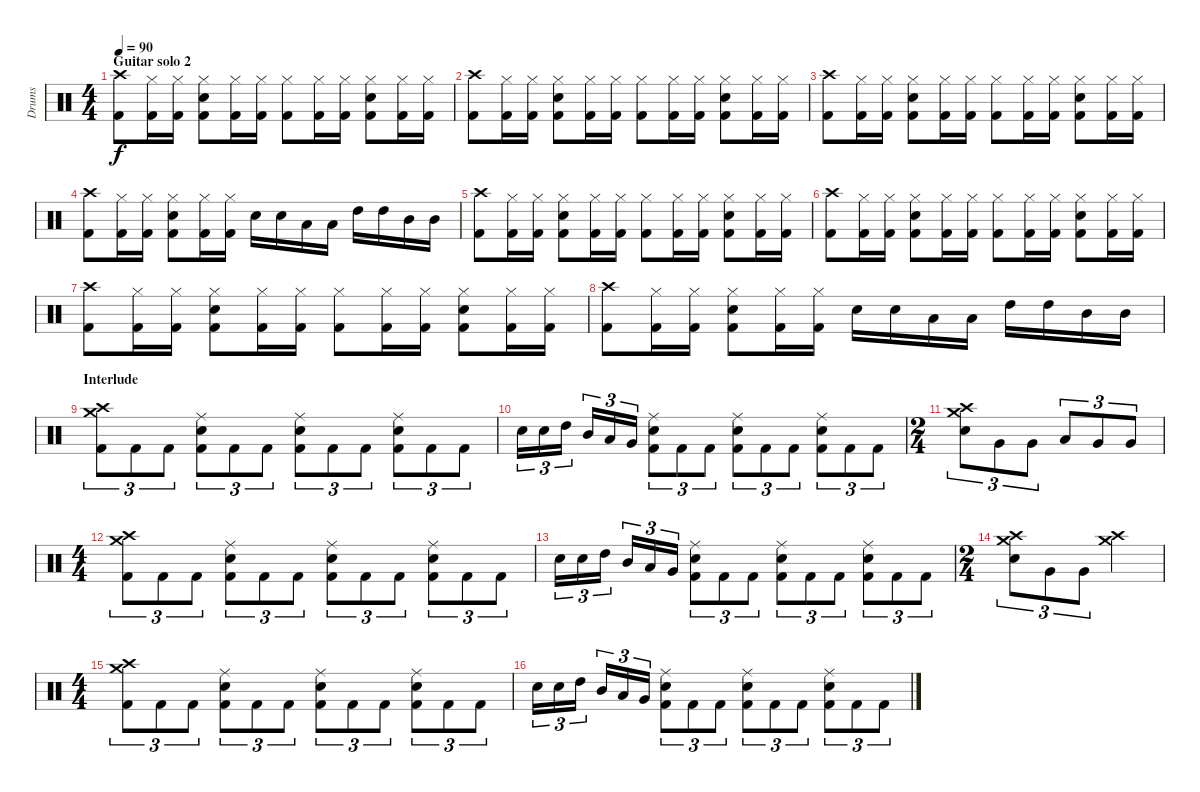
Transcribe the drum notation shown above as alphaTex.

\track ("Drums" "Drums") {instrument percussion}
\staff {score}
\articulation defaults
\ts (4 4)
\section ("" "Guitar solo 2")
\tempo 90
\clef neutral
\ks c
("Crash high (hit)" "Kick (hit) 2").8{dy f} ("Hi-Hat (closed)" "Kick (hit) 2").16 ("Hi-Hat (closed)" "Kick (hit) 2").16 ("Hi-Hat (closed)" "Kick (hit) 2" "Electric Snare (hit)").8 ("Hi-Hat (closed)" "Kick (hit) 2").16 ("Hi-Hat (closed)" "Kick (hit) 2").16 ("Hi-Hat (closed)" "Kick (hit) 2").8 ("Hi-Hat (closed)" "Kick (hit) 2").16 ("Hi-Hat (closed)" "Kick (hit) 2").16 ("Hi-Hat (closed)" "Kick (hit) 2" "Electric Snare (hit)").8 ("Hi-Hat (closed)" "Kick (hit) 2").16 ("Hi-Hat (closed)" "Kick (hit) 2").16 |
("Crash high (hit)" "Kick (hit) 2").8 ("Hi-Hat (closed)" "Kick (hit) 2").16 ("Hi-Hat (closed)" "Kick (hit) 2").16 ("Hi-Hat (closed)" "Kick (hit) 2" "Electric Snare (hit)").8 ("Hi-Hat (closed)" "Kick (hit) 2").16 ("Hi-Hat (closed)" "Kick (hit) 2").16 ("Hi-Hat (closed)" "Kick (hit) 2").8 ("Hi-Hat (closed)" "Kick (hit) 2").16 ("Hi-Hat (closed)" "Kick (hit) 2").16 ("Hi-Hat (closed)" "Kick (hit) 2" "Electric Snare (hit)").8 ("Hi-Hat (closed)" "Kick (hit) 2").16 ("Hi-Hat (closed)" "Kick (hit) 2").16 |
("Crash high (hit)" "Kick (hit) 2").8 ("Hi-Hat (closed)" "Kick (hit) 2").16 ("Hi-Hat (closed)" "Kick (hit) 2").16 ("Hi-Hat (closed)" "Kick (hit) 2" "Electric Snare (hit)").8 ("Hi-Hat (closed)" "Kick (hit) 2").16 ("Hi-Hat (closed)" "Kick (hit) 2").16 ("Hi-Hat (closed)" "Kick (hit) 2").8 ("Hi-Hat (closed)" "Kick (hit) 2").16 ("Hi-Hat (closed)" "Kick (hit) 2").16 ("Hi-Hat (closed)" "Kick (hit) 2" "Electric Snare (hit)").8 ("Hi-Hat (closed)" "Kick (hit) 2").16 ("Hi-Hat (closed)" "Kick (hit) 2").16 |
("Crash high (hit)" "Kick (hit) 2").8 ("Hi-Hat (closed)" "Kick (hit) 2").16 ("Hi-Hat (closed)" "Kick (hit) 2").16 ("Hi-Hat (closed)" "Kick (hit) 2" "Electric Snare (hit)").8 ("Hi-Hat (closed)" "Kick (hit) 2").16 ("Hi-Hat (closed)" "Kick (hit) 2").16 "Electric Snare (hit)".16 "Electric Snare (hit)".16 "Low Tom (hit)".16 "Low Tom (hit)".16 "High Tom (hit)".16 "High Tom (hit)".16 "Mid Tom (hit)".16 "Mid Tom (hit)".16 |
("Crash high (hit)" "Kick (hit) 2").8 ("Hi-Hat (closed)" "Kick (hit) 2").16 ("Hi-Hat (closed)" "Kick (hit) 2").16 ("Hi-Hat (closed)" "Kick (hit) 2" "Electric Snare (hit)").8 ("Hi-Hat (closed)" "Kick (hit) 2").16 ("Hi-Hat (closed)" "Kick (hit) 2").16 ("Hi-Hat (closed)" "Kick (hit) 2").8 ("Hi-Hat (closed)" "Kick (hit) 2").16 ("Hi-Hat (closed)" "Kick (hit) 2").16 ("Hi-Hat (closed)" "Kick (hit) 2" "Electric Snare (hit)").8 ("Hi-Hat (closed)" "Kick (hit) 2").16 ("Hi-Hat (closed)" "Kick (hit) 2").16 |
("Crash high (hit)" "Kick (hit) 2").8 ("Hi-Hat (closed)" "Kick (hit) 2").16 ("Hi-Hat (closed)" "Kick (hit) 2").16 ("Hi-Hat (closed)" "Kick (hit) 2" "Electric Snare (hit)").8 ("Hi-Hat (closed)" "Kick (hit) 2").16 ("Hi-Hat (closed)" "Kick (hit) 2").16 ("Hi-Hat (closed)" "Kick (hit) 2").8 ("Hi-Hat (closed)" "Kick (hit) 2").16 ("Hi-Hat (closed)" "Kick (hit) 2").16 ("Hi-Hat (closed)" "Kick (hit) 2" "Electric Snare (hit)").8 ("Hi-Hat (closed)" "Kick (hit) 2").16 ("Hi-Hat (closed)" "Kick (hit) 2").16 |
("Crash high (hit)" "Kick (hit) 2").8 ("Hi-Hat (closed)" "Kick (hit) 2").16 ("Hi-Hat (closed)" "Kick (hit) 2").16 ("Hi-Hat (closed)" "Kick (hit) 2" "Electric Snare (hit)").8 ("Hi-Hat (closed)" "Kick (hit) 2").16 ("Hi-Hat (closed)" "Kick (hit) 2").16 ("Hi-Hat (closed)" "Kick (hit) 2").8 ("Hi-Hat (closed)" "Kick (hit) 2").16 ("Hi-Hat (closed)" "Kick (hit) 2").16 ("Hi-Hat (closed)" "Kick (hit) 2" "Electric Snare (hit)").8 ("Hi-Hat (closed)" "Kick (hit) 2").16 ("Hi-Hat (closed)" "Kick (hit) 2").16 |
("Crash high (hit)" "Kick (hit) 2").8 ("Hi-Hat (closed)" "Kick (hit) 2").16 ("Hi-Hat (closed)" "Kick (hit) 2").16 ("Hi-Hat (closed)" "Kick (hit) 2" "Electric Snare (hit)").8 ("Hi-Hat (closed)" "Kick (hit) 2").16 ("Hi-Hat (closed)" "Kick (hit) 2").16 "Electric Snare (hit)".16 "Electric Snare (hit)".16 "Low Tom (hit)".16 "Low Tom (hit)".16 "High Tom (hit)".16 "High Tom (hit)".16 "Mid Tom (hit)".16 "Mid Tom (hit)".16 |
\section ("" "Interlude")
("Crash medium (hit)" "Crash high (hit)" "Kick (hit) 2").8{tu (3 2)} "Kick (hit) 2".8{tu (3 2)} "Kick (hit) 2".8{tu (3 2)} ("Electric Snare (hit)" "Ride (middle)" "Kick (hit) 2").8{tu (3 2)} "Kick (hit) 2".8{tu (3 2)} "Kick (hit) 2".8{tu (3 2)} ("Electric Snare (hit)" "Ride (middle)" "Kick (hit) 2").8{tu (3 2)} "Kick (hit) 2".8{tu (3 2)} "Kick (hit) 2".8{tu (3 2)} ("Electric Snare (hit)" "Ride (middle)" "Kick (hit) 2").8{tu (3 2)} "Kick (hit) 2".8{tu (3 2)} "Kick (hit) 2".8{tu (3 2)} |
"Electric Snare (hit)".16{tu (3 2)} "Electric Snare (hit)".16{tu (3 2)} "High Tom (hit)".16{tu (3 2)} "Mid Tom (hit)".16{tu (3 2)} "Low Tom (hit)".16{tu (3 2)} "Very Low Tom (hit)".16{tu (3 2)} ("Electric Snare (hit)" "Ride (middle)" "Kick (hit) 2").8{tu (3 2)} "Kick (hit) 2".8{tu (3 2)} "Kick (hit) 2".8{tu (3 2)} ("Electric Snare (hit)" "Ride (middle)" "Kick (hit) 2").8{tu (3 2)} "Kick (hit) 2".8{tu (3 2)} "Kick (hit) 2".8{tu (3 2)} ("Electric Snare (hit)" "Ride (middle)" "Kick (hit) 2").8{tu (3 2)} "Kick (hit) 2".8{tu (3 2)} "Kick (hit) 2".8{tu (3 2)} |
\ts (2 4)
("Crash medium (hit)" "Crash high (hit)" "Electric Snare (hit)").8{tu (3 2)} "Very Low Tom (hit)".8{tu (3 2)} "Very Low Tom (hit)".8{tu (3 2)} "Low Tom (hit)".8{tu (3 2)} "Very Low Tom (hit)".8{tu (3 2)} "Very Low Tom (hit)".8{tu (3 2)} |
\ts (4 4)
("Crash medium (hit)" "Crash high (hit)" "Kick (hit) 2").8{tu (3 2)} "Kick (hit) 2".8{tu (3 2)} "Kick (hit) 2".8{tu (3 2)} ("Electric Snare (hit)" "Ride (middle)" "Kick (hit) 2").8{tu (3 2)} "Kick (hit) 2".8{tu (3 2)} "Kick (hit) 2".8{tu (3 2)} ("Electric Snare (hit)" "Ride (middle)" "Kick (hit) 2").8{tu (3 2)} "Kick (hit) 2".8{tu (3 2)} "Kick (hit) 2".8{tu (3 2)} ("Electric Snare (hit)" "Ride (middle)" "Kick (hit) 2").8{tu (3 2)} "Kick (hit) 2".8{tu (3 2)} "Kick (hit) 2".8{tu (3 2)} |
"Electric Snare (hit)".16{tu (3 2)} "Electric Snare (hit)".16{tu (3 2)} "High Tom (hit)".16{tu (3 2)} "Mid Tom (hit)".16{tu (3 2)} "Low Tom (hit)".16{tu (3 2)} "Very Low Tom (hit)".16{tu (3 2)} ("Electric Snare (hit)" "Ride (middle)" "Kick (hit) 2").8{tu (3 2)} "Kick (hit) 2".8{tu (3 2)} "Kick (hit) 2".8{tu (3 2)} ("Electric Snare (hit)" "Ride (middle)" "Kick (hit) 2").8{tu (3 2)} "Kick (hit) 2".8{tu (3 2)} "Kick (hit) 2".8{tu (3 2)} ("Electric Snare (hit)" "Ride (middle)" "Kick (hit) 2").8{tu (3 2)} "Kick (hit) 2".8{tu (3 2)} "Kick (hit) 2".8{tu (3 2)} |
\ts (2 4)
("Crash high (hit)" "Crash medium (hit)" "Electric Snare (hit)").8{tu (3 2)} "Very Low Tom (hit)".8{tu (3 2)} "Very Low Tom (hit)".8{tu (3 2)} ("Crash high (hit)" "Crash medium (hit)").4 |
\ts (4 4)
("Crash medium (hit)" "Crash high (hit)" "Kick (hit) 2").8{tu (3 2)} "Kick (hit) 2".8{tu (3 2)} "Kick (hit) 2".8{tu (3 2)} ("Electric Snare (hit)" "Ride (middle)" "Kick (hit) 2").8{tu (3 2)} "Kick (hit) 2".8{tu (3 2)} "Kick (hit) 2".8{tu (3 2)} ("Electric Snare (hit)" "Ride (middle)" "Kick (hit) 2").8{tu (3 2)} "Kick (hit) 2".8{tu (3 2)} "Kick (hit) 2".8{tu (3 2)} ("Electric Snare (hit)" "Ride (middle)" "Kick (hit) 2").8{tu (3 2)} "Kick (hit) 2".8{tu (3 2)} "Kick (hit) 2".8{tu (3 2)} |
"Electric Snare (hit)".16{tu (3 2)} "Electric Snare (hit)".16{tu (3 2)} "High Tom (hit)".16{tu (3 2)} "Mid Tom (hit)".16{tu (3 2)} "Low Tom (hit)".16{tu (3 2)} "Very Low Tom (hit)".16{tu (3 2)} ("Electric Snare (hit)" "Ride (middle)" "Kick (hit) 2").8{tu (3 2)} "Kick (hit) 2".8{tu (3 2)} "Kick (hit) 2".8{tu (3 2)} ("Electric Snare (hit)" "Ride (middle)" "Kick (hit) 2").8{tu (3 2)} "Kick (hit) 2".8{tu (3 2)} "Kick (hit) 2".8{tu (3 2)} ("Electric Snare (hit)" "Ride (middle)" "Kick (hit) 2").8{tu (3 2)} "Kick (hit) 2".8{tu (3 2)} "Kick (hit) 2".8{tu (3 2)}
